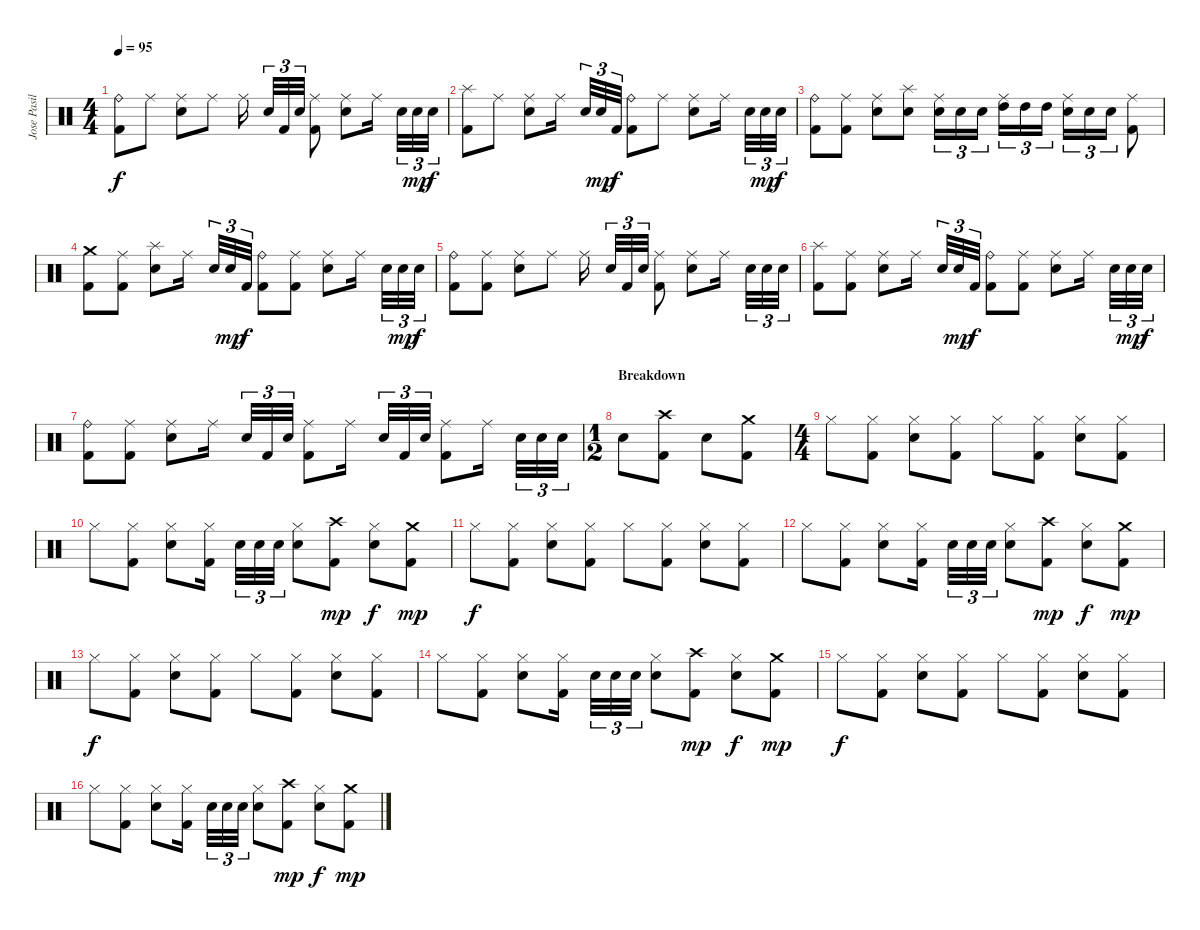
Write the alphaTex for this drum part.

\track ("Jose Pasillas II - Drums" "Jose Pasil") {instrument percussion}
\staff {score}
\articulation defaults
\ts (4 4)
\tempo 95
\clef neutral
\ks aminor
("Ride (bell)" "Kick (hit) 2").8{dy f} "Ride (middle)".8 ("Ride (middle)" "Electric Snare (hit)").8 "Ride (middle)".8 "Ride (middle)".16 "Snare (hit)"{x}.32{tu (3 2)} "Kick (hit) 2".32{tu (3 2)} "Snare (hit)"{x}.32{tu (3 2)} ("Ride (middle)" "Kick (hit) 2").8 ("Ride (middle)" "Electric Snare (hit)").8 "Ride (middle)".16 "Snare (hit)"{x}.32{tu (3 2)} "Electric Snare (hit)".32{tu (3 2) dy mp} "Snare (hit)"{x}.32{tu (3 2) dy f} |
("Splash (hit)" "Kick (hit) 2").8 "Ride (middle)".8 ("Ride (middle)" "Electric Snare (hit)").8 "Ride (middle)".16 "Snare (hit)"{x}.32{tu (3 2)} "Electric Snare (hit)".32{tu (3 2) dy mp} "Kick (hit) 2"{x}.32{tu (3 2) dy f} ("Ride (bell)" "Kick (hit) 2").8 "Ride (middle)".8 ("Ride (middle)" "Electric Snare (hit)").8 "Ride (middle)".16 "Snare (hit)"{x}.32{tu (3 2)} "Electric Snare (hit)".32{tu (3 2) dy mp} "Snare (hit)"{x}.32{tu (3 2) dy f} |
("Ride (bell)" "Kick (hit) 2").8 ("Ride (middle)" "Kick (hit) 2").8 ("Ride (middle)" "Electric Snare (hit)").8 ("Splash (hit)" "Electric Snare (hit)").8 ("Ride (middle)" "Electric Snare (hit)").16{tu (3 2)} "Electric Snare (hit)".16{tu (3 2)} "Electric Snare (hit)".16{tu (3 2)} ("Ride (middle)" "High Tom (hit)").16{tu (3 2)} "High Tom (hit)".16{tu (3 2)} "High Tom (hit)".16{tu (3 2)} ("Ride (middle)" "Electric Snare (hit)").16{tu (3 2)} "Electric Snare (hit)".16{tu (3 2)} "Electric Snare (hit)".16{tu (3 2)} ("Ride (middle)" "Kick (hit) 2").8 |
("Crash medium (hit)" "Kick (hit) 2").8 ("Ride (middle)" "Kick (hit) 2").8 ("Splash (hit)" "Electric Snare (hit)").8 "Ride (middle)".16 "Snare (hit)"{x}.32{tu (3 2)} "Electric Snare (hit)".32{tu (3 2) dy mp} "Kick (hit) 2"{x}.32{tu (3 2) dy f} ("Ride (bell)" "Kick (hit) 2").8 ("Ride (middle)" "Kick (hit) 2").8 ("Ride (middle)" "Electric Snare (hit)").8 "Ride (middle)".16 "Snare (hit)"{x}.32{tu (3 2)} "Electric Snare (hit)".32{tu (3 2) dy mp} "Snare (hit)"{x}.32{tu (3 2) dy f} |
("Ride (bell)" "Kick (hit) 2").8 ("Ride (middle)" "Kick (hit) 2").8 ("Ride (middle)" "Electric Snare (hit)").8 "Ride (middle)".8 "Ride (middle)".16 "Snare (hit)"{x}.32{tu (3 2)} "Kick (hit) 2".32{tu (3 2)} "Snare (hit)"{x}.32{tu (3 2)} ("Ride (middle)" "Kick (hit) 2").8 ("Ride (middle)" "Electric Snare (hit)").8 "Ride (middle)".16 "Snare (hit)"{x}.32{tu (3 2)} "Electric Snare (hit)".32{tu (3 2)} "Snare (hit)"{x}.32{tu (3 2)} |
("Splash (hit)" "Kick (hit) 2").8 ("Ride (middle)" "Kick (hit) 2").8 ("Ride (middle)" "Electric Snare (hit)").8 "Ride (middle)".16 "Snare (hit)"{x}.32{tu (3 2)} "Electric Snare (hit)".32{tu (3 2) dy mp} "Kick (hit) 2"{x}.32{tu (3 2) dy f} ("Ride (bell)" "Kick (hit) 2").8 ("Ride (middle)" "Kick (hit) 2").8 ("Ride (middle)" "Electric Snare (hit)").8 "Ride (middle)".16 "Snare (hit)"{x}.32{tu (3 2)} "Electric Snare (hit)".32{tu (3 2) dy mp} "Snare (hit)"{x}.32{tu (3 2) dy f} |
("Ride (bell)" "Kick (hit) 2").8 ("Ride (middle)" "Kick (hit) 2").8 ("Ride (middle)" "Electric Snare (hit)").8 "Ride (middle)".16 "Snare (hit)"{x}.32{tu (3 2)} "Kick (hit) 2".32{tu (3 2)} "Snare (hit)"{x}.32{tu (3 2)} ("Ride (middle)" "Kick (hit) 2").8 "Ride (middle)".16 "Snare (hit)"{x}.32{tu (3 2)} "Kick (hit) 2".32{tu (3 2)} "Snare (hit)"{x}.32{tu (3 2)} ("Ride (middle)" "Kick (hit) 2").8 "Ride (middle)".16 "Snare (hit)"{x}.32{tu (3 2)} "Electric Snare (hit)".32{tu (3 2)} "Snare (hit)"{x}.32{tu (3 2)} |
\ts (1 2)
\section ("" "Breakdown")
"Electric Snare (hit)".8 ("Crash high (hit)" "Kick (hit) 2").8 "Electric Snare (hit)".8 ("Crash medium (hit)" "Kick (hit) 2").8 |
\ts (4 4)
"Hi-Hat (closed)".8 ("Hi-Hat (closed)" "Kick (hit) 2").8 ("Hi-Hat (closed)" "Electric Snare (hit)").8 ("Hi-Hat (closed)" "Kick (hit) 2").8 "Hi-Hat (closed)".8 ("Hi-Hat (closed)" "Kick (hit) 2").8 ("Hi-Hat (closed)" "Electric Snare (hit)").8 ("Hi-Hat (closed)" "Kick (hit) 2").8 |
"Hi-Hat (closed)".8 ("Hi-Hat (closed)" "Kick (hit) 2").8 ("Hi-Hat (closed)" "Electric Snare (hit)").8 ("Hi-Hat (closed)" "Kick (hit) 2").16 "Snare (hit)"{x}.32{tu (3 2)} "Electric Snare (hit)".32{tu (3 2)} "Electric Snare (hit)"{x}.32{tu (3 2)} ("Hi-Hat (closed)" "Electric Snare (hit)").8 ("Crash high (hit)" "Kick (hit) 2").8{dy mp} ("Hi-Hat (closed)" "Electric Snare (hit)").8{dy f} ("Crash medium (hit)" "Kick (hit) 2").8{dy mp} |
"Hi-Hat (closed)".8{dy f} ("Hi-Hat (closed)" "Kick (hit) 2").8 ("Hi-Hat (closed)" "Electric Snare (hit)").8 ("Hi-Hat (closed)" "Kick (hit) 2").8 "Hi-Hat (closed)".8 ("Hi-Hat (closed)" "Kick (hit) 2").8 ("Hi-Hat (closed)" "Electric Snare (hit)").8 ("Hi-Hat (closed)" "Kick (hit) 2").8 |
"Hi-Hat (closed)".8 ("Hi-Hat (closed)" "Kick (hit) 2").8 ("Hi-Hat (closed)" "Electric Snare (hit)").8 ("Hi-Hat (closed)" "Kick (hit) 2").16 "Snare (hit)"{x}.32{tu (3 2)} "Electric Snare (hit)".32{tu (3 2)} "Electric Snare (hit)"{x}.32{tu (3 2)} ("Hi-Hat (closed)" "Electric Snare (hit)").8 ("Crash high (hit)" "Kick (hit) 2").8{dy mp} ("Hi-Hat (closed)" "Electric Snare (hit)").8{dy f} ("Crash medium (hit)" "Kick (hit) 2").8{dy mp} |
"Hi-Hat (closed)".8{dy f} ("Hi-Hat (closed)" "Kick (hit) 2").8 ("Hi-Hat (closed)" "Electric Snare (hit)").8 ("Hi-Hat (closed)" "Kick (hit) 2").8 "Hi-Hat (closed)".8 ("Hi-Hat (closed)" "Kick (hit) 2").8 ("Hi-Hat (closed)" "Electric Snare (hit)").8 ("Hi-Hat (closed)" "Kick (hit) 2").8 |
"Hi-Hat (closed)".8 ("Hi-Hat (closed)" "Kick (hit) 2").8 ("Hi-Hat (closed)" "Electric Snare (hit)").8 ("Hi-Hat (closed)" "Kick (hit) 2").16 "Snare (hit)"{x}.32{tu (3 2)} "Electric Snare (hit)".32{tu (3 2)} "Electric Snare (hit)"{x}.32{tu (3 2)} ("Hi-Hat (closed)" "Electric Snare (hit)").8 ("Crash high (hit)" "Kick (hit) 2").8{dy mp} ("Hi-Hat (closed)" "Electric Snare (hit)").8{dy f} ("Crash medium (hit)" "Kick (hit) 2").8{dy mp} |
"Hi-Hat (closed)".8{dy f} ("Hi-Hat (closed)" "Kick (hit) 2").8 ("Hi-Hat (closed)" "Electric Snare (hit)").8 ("Hi-Hat (closed)" "Kick (hit) 2").8 "Hi-Hat (closed)".8 ("Hi-Hat (closed)" "Kick (hit) 2").8 ("Hi-Hat (closed)" "Electric Snare (hit)").8 ("Hi-Hat (closed)" "Kick (hit) 2").8 |
"Hi-Hat (closed)".8 ("Hi-Hat (closed)" "Kick (hit) 2").8 ("Hi-Hat (closed)" "Electric Snare (hit)").8 ("Hi-Hat (closed)" "Kick (hit) 2").16 "Snare (hit)"{x}.32{tu (3 2)} "Electric Snare (hit)".32{tu (3 2)} "Electric Snare (hit)"{x}.32{tu (3 2)} ("Hi-Hat (closed)" "Electric Snare (hit)").8 ("Crash high (hit)" "Kick (hit) 2").8{dy mp} ("Hi-Hat (closed)" "Electric Snare (hit)").8{dy f} ("Crash medium (hit)" "Kick (hit) 2").8{dy mp}
